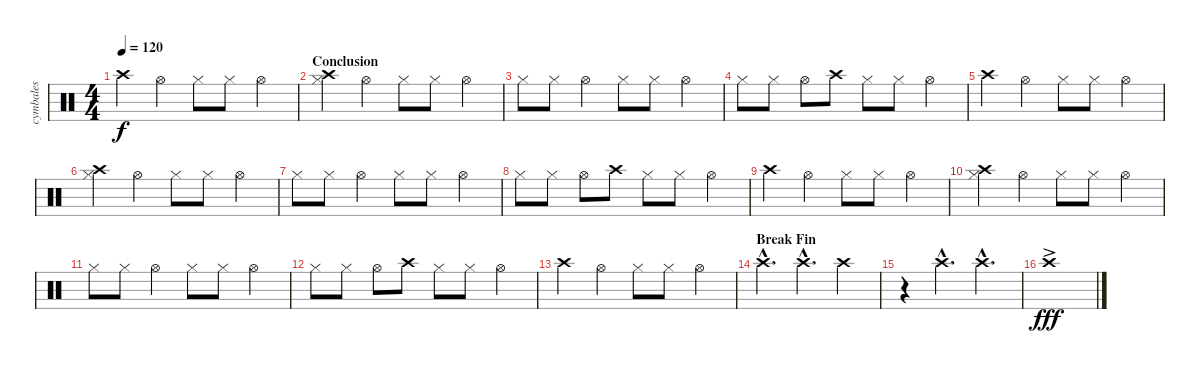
\track ("cymbales" "cymbales") {instrument percussion}
\staff {score}
\articulation defaults
\ts (4 4)
\tempo 120
\clef neutral
\ks c "Crash high (hit)".4{dy f} "Hi-Hat (open)".4 "Hi-Hat (closed)".8 "Hi-Hat (closed)".8 "Hi-Hat (open)".4
|
\section ("" "Conclusion")
("Crash high (hit)" "Hi-Hat (closed)").4 "Hi-Hat (open)".4 "Hi-Hat (closed)".8 "Hi-Hat (closed)".8 "Hi-Hat (open)".4 |
"Hi-Hat (closed)".8 "Hi-Hat (closed)".8 "Hi-Hat (open)".4 "Hi-Hat (closed)".8 "Hi-Hat (closed)".8 "Hi-Hat (open)".4 |
"Hi-Hat (closed)".8 "Hi-Hat (closed)".8 "Hi-Hat (open)".8 "Crash high (hit)".8 "Hi-Hat (closed)".8 "Hi-Hat (closed)".8 "Hi-Hat (open)".4 |
"Crash high (hit)".4 "Hi-Hat (open)".4 "Hi-Hat (closed)".8 "Hi-Hat (closed)".8 "Hi-Hat (open)".4 |
("Crash high (hit)" "Hi-Hat (closed)").4 "Hi-Hat (open)".4 "Hi-Hat (closed)".8 "Hi-Hat (closed)".8 "Hi-Hat (open)".4 |
"Hi-Hat (closed)".8 "Hi-Hat (closed)".8 "Hi-Hat (open)".4 "Hi-Hat (closed)".8 "Hi-Hat (closed)".8 "Hi-Hat (open)".4 |
"Hi-Hat (closed)".8 "Hi-Hat (closed)".8 "Hi-Hat (open)".8 "Crash high (hit)".8 "Hi-Hat (closed)".8 "Hi-Hat (closed)".8 "Hi-Hat (open)".4 |
"Crash high (hit)".4 "Hi-Hat (open)".4 "Hi-Hat (closed)".8 "Hi-Hat (closed)".8 "Hi-Hat (open)".4 |
("Crash high (hit)" "Hi-Hat (closed)").4 "Hi-Hat (open)".4 "Hi-Hat (closed)".8 "Hi-Hat (closed)".8 "Hi-Hat (open)".4 |
"Hi-Hat (closed)".8 "Hi-Hat (closed)".8 "Hi-Hat (open)".4 "Hi-Hat (closed)".8 "Hi-Hat (closed)".8 "Hi-Hat (open)".4 |
"Hi-Hat (closed)".8 "Hi-Hat (closed)".8 "Hi-Hat (open)".8 "Crash high (hit)".8 "Hi-Hat (closed)".8 "Hi-Hat (closed)".8 "Hi-Hat (open)".4 |
"Crash high (hit)".4 "Hi-Hat (open)".4 "Hi-Hat (closed)".8 "Hi-Hat (closed)".8 "Hi-Hat (open)".4 |
\section ("" "Break Fin")
"Crash high (hit)"{hac}.4{d} "Crash high (hit)"{hac}.4{d} "Crash high (hit)".4 |
r.4 "Crash high (hit)"{hac}.4{d} "Crash high (hit)"{hac}.4{d} |
"Crash high (hit)"{ac}.1{dy fff}
